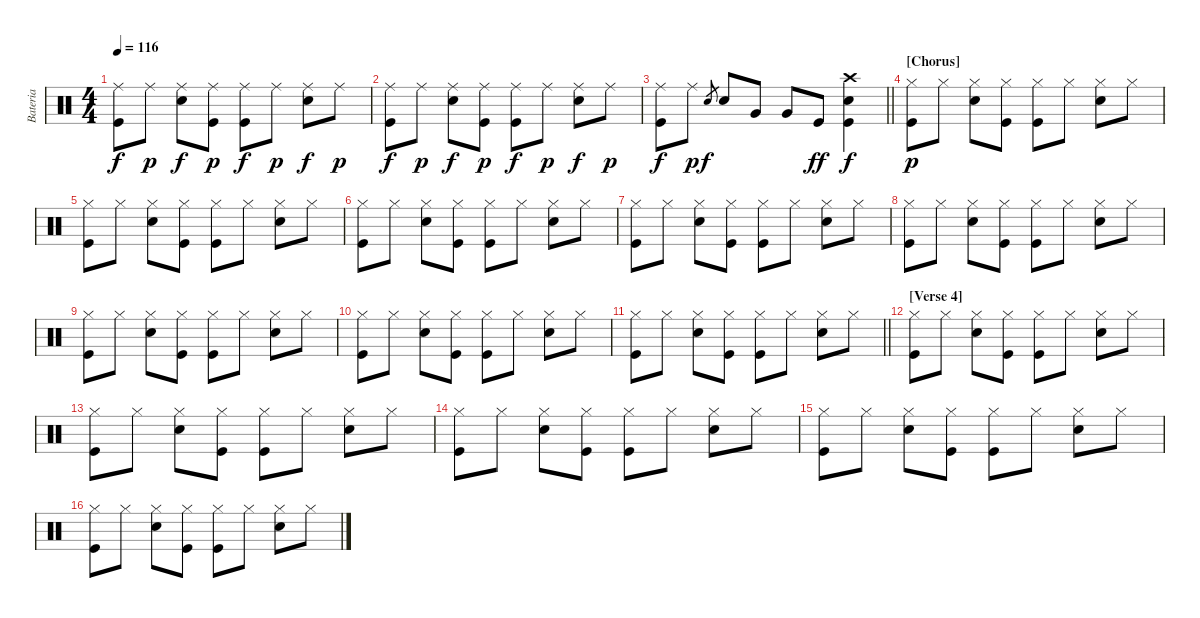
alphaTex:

\track ("Bateria" "Bateria") {instrument percussion}
\staff {score}
\articulation defaults
\ts (4 4)
\tempo 116
\clef neutral
\ks c
("Ride (middle)" "Kick (hit)").8{dy f} "Ride (middle)".8{dy p} ("Ride (middle)" "Snare (hit) 2").8{dy f} ("Ride (middle)" "Kick (hit)").8{dy p} ("Ride (middle)" "Kick (hit)").8{dy f} "Ride (middle)".8{dy p} ("Ride (middle)" "Snare (hit) 2").8{dy f} "Ride (middle)".8{dy p} |
("Ride (middle)" "Kick (hit)").8{dy f} "Ride (middle)".8{dy p} ("Ride (middle)" "Snare (hit) 2").8{dy f} ("Ride (middle)" "Kick (hit)").8{dy p} ("Ride (middle)" "Kick (hit)").8{dy f} "Ride (middle)".8{dy p} ("Ride (middle)" "Snare (hit) 2").8{dy f} "Ride (middle)".8{dy p} |
\barLineRight lightlight
("Ride (middle)" "Kick (hit)").8{dy f} "Ride (middle)".8{dy p} "Snare (hit) 2".8{gr dy f} "Snare (hit) 2".8 "Very Low Tom (hit)".8 "Very Low Tom (hit)".8 "Kick (hit)".8{dy ff} ("Snare (hit) 2" "Crash high (hit)" "Kick (hit)").4{dy f} |
\section ("" "[Chorus]")
("Hi-Hat (closed)" "Kick (hit)").8{dy p} "Hi-Hat (closed)".8 ("Hi-Hat (closed)" "Snare (hit) 2").8 ("Hi-Hat (closed)" "Kick (hit)").8 ("Hi-Hat (closed)" "Kick (hit)").8 "Hi-Hat (closed)".8 ("Hi-Hat (closed)" "Snare (hit) 2").8 "Hi-Hat (closed)".8 |
("Hi-Hat (closed)" "Kick (hit)").8 "Hi-Hat (closed)".8 ("Hi-Hat (closed)" "Snare (hit) 2").8 ("Hi-Hat (closed)" "Kick (hit)").8 ("Hi-Hat (closed)" "Kick (hit)").8 "Hi-Hat (closed)".8 ("Hi-Hat (closed)" "Snare (hit) 2").8 "Hi-Hat (closed)".8 |
("Hi-Hat (closed)" "Kick (hit)").8 "Hi-Hat (closed)".8 ("Hi-Hat (closed)" "Snare (hit) 2").8 ("Hi-Hat (closed)" "Kick (hit)").8 ("Hi-Hat (closed)" "Kick (hit)").8 "Hi-Hat (closed)".8 ("Hi-Hat (closed)" "Snare (hit) 2").8 "Hi-Hat (closed)".8 |
("Hi-Hat (closed)" "Kick (hit)").8 "Hi-Hat (closed)".8 ("Hi-Hat (closed)" "Snare (hit) 2").8 ("Hi-Hat (closed)" "Kick (hit)").8 ("Hi-Hat (closed)" "Kick (hit)").8 "Hi-Hat (closed)".8 ("Hi-Hat (closed)" "Snare (hit) 2").8 "Hi-Hat (closed)".8 |
("Hi-Hat (closed)" "Kick (hit)").8 "Hi-Hat (closed)".8 ("Hi-Hat (closed)" "Snare (hit) 2").8 ("Hi-Hat (closed)" "Kick (hit)").8 ("Hi-Hat (closed)" "Kick (hit)").8 "Hi-Hat (closed)".8 ("Hi-Hat (closed)" "Snare (hit) 2").8 "Hi-Hat (closed)".8 |
("Hi-Hat (closed)" "Kick (hit)").8 "Hi-Hat (closed)".8 ("Hi-Hat (closed)" "Snare (hit) 2").8 ("Hi-Hat (closed)" "Kick (hit)").8 ("Hi-Hat (closed)" "Kick (hit)").8 "Hi-Hat (closed)".8 ("Hi-Hat (closed)" "Snare (hit) 2").8 "Hi-Hat (closed)".8 |
("Hi-Hat (closed)" "Kick (hit)").8 "Hi-Hat (closed)".8 ("Hi-Hat (closed)" "Snare (hit) 2").8 ("Hi-Hat (closed)" "Kick (hit)").8 ("Hi-Hat (closed)" "Kick (hit)").8 "Hi-Hat (closed)".8 ("Hi-Hat (closed)" "Snare (hit) 2").8 "Hi-Hat (closed)".8 |
\barLineRight lightlight
("Hi-Hat (closed)" "Kick (hit)").8 "Hi-Hat (closed)".8 ("Hi-Hat (closed)" "Snare (hit) 2").8 ("Hi-Hat (closed)" "Kick (hit)").8 ("Hi-Hat (closed)" "Kick (hit)").8 "Hi-Hat (closed)".8 ("Hi-Hat (closed)" "Snare (hit) 2").8 "Hi-Hat (closed)".8 |
\section ("" "[Verse 4]")
("Hi-Hat (closed)" "Kick (hit)").8 "Hi-Hat (closed)".8 ("Hi-Hat (closed)" "Snare (hit) 2").8 ("Hi-Hat (closed)" "Kick (hit)").8 ("Hi-Hat (closed)" "Kick (hit)").8 "Hi-Hat (closed)".8 ("Hi-Hat (closed)" "Snare (hit) 2").8 "Hi-Hat (closed)".8 |
("Hi-Hat (closed)" "Kick (hit)").8 "Hi-Hat (closed)".8 ("Hi-Hat (closed)" "Snare (hit) 2").8 ("Hi-Hat (closed)" "Kick (hit)").8 ("Hi-Hat (closed)" "Kick (hit)").8 "Hi-Hat (closed)".8 ("Hi-Hat (closed)" "Snare (hit) 2").8 "Hi-Hat (closed)".8 |
("Hi-Hat (closed)" "Kick (hit)").8 "Hi-Hat (closed)".8 ("Hi-Hat (closed)" "Snare (hit) 2").8 ("Hi-Hat (closed)" "Kick (hit)").8 ("Hi-Hat (closed)" "Kick (hit)").8 "Hi-Hat (closed)".8 ("Hi-Hat (closed)" "Snare (hit) 2").8 "Hi-Hat (closed)".8 |
("Hi-Hat (closed)" "Kick (hit)").8 "Hi-Hat (closed)".8 ("Hi-Hat (closed)" "Snare (hit) 2").8 ("Hi-Hat (closed)" "Kick (hit)").8 ("Hi-Hat (closed)" "Kick (hit)").8 "Hi-Hat (closed)".8 ("Hi-Hat (closed)" "Snare (hit) 2").8 "Hi-Hat (closed)".8 |
("Hi-Hat (closed)" "Kick (hit)").8 "Hi-Hat (closed)".8 ("Hi-Hat (closed)" "Snare (hit) 2").8 ("Hi-Hat (closed)" "Kick (hit)").8 ("Hi-Hat (closed)" "Kick (hit)").8 "Hi-Hat (closed)".8 ("Hi-Hat (closed)" "Snare (hit) 2").8 "Hi-Hat (closed)".8
